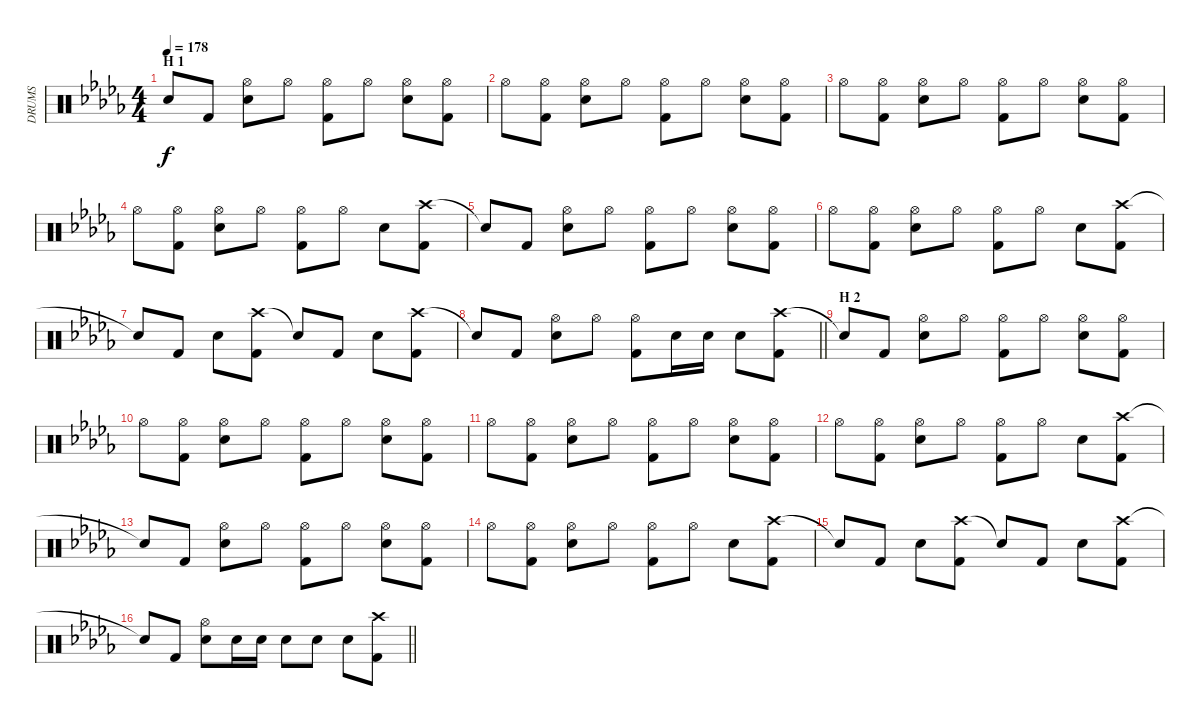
\track ("DRUMS" "DRUMS") {instrument percussion}
\staff {score}
\articulation defaults
\ts (4 4)
\section ("" "H 1")
\tempo 178
\clef neutral
\ks db "Snare (hit)"{t}.8{dy f} "Kick (hit) 2".8
("Hi-Hat (open)" "Snare (hit) 2").8 "Hi-Hat (open)".8 ("Hi-Hat (open)" "Kick (hit) 2").8 "Hi-Hat (open)".8 ("Hi-Hat (open)" "Snare (hit) 2").8 ("Hi-Hat (open)" "Kick (hit) 2").8 |
"Hi-Hat (open)".8 ("Hi-Hat (open)" "Kick (hit) 2").8 ("Hi-Hat (open)" "Snare (hit) 2").8 "Hi-Hat (open)".8 ("Hi-Hat (open)" "Kick (hit) 2").8 "Hi-Hat (open)".8 ("Hi-Hat (open)" "Snare (hit) 2").8 ("Hi-Hat (open)" "Kick (hit) 2").8 |
"Hi-Hat (open)".8 ("Hi-Hat (open)" "Kick (hit) 2").8 ("Hi-Hat (open)" "Snare (hit) 2").8 "Hi-Hat (open)".8 ("Hi-Hat (open)" "Kick (hit) 2").8 "Hi-Hat (open)".8 ("Hi-Hat (open)" "Snare (hit) 2").8 ("Hi-Hat (open)" "Kick (hit) 2").8 |
"Hi-Hat (open)".8 ("Hi-Hat (open)" "Kick (hit) 2").8 ("Hi-Hat (open)" "Snare (hit) 2").8 "Hi-Hat (open)".8 ("Hi-Hat (open)" "Kick (hit) 2").8 "Hi-Hat (open)".8 "Snare (hit) 2".8 ("Crash high (hit)" "Kick (hit) 2").8 |
"Snare (hit)"{t}.8 "Kick (hit) 2".8 ("Hi-Hat (open)" "Snare (hit) 2").8 "Hi-Hat (open)".8 ("Hi-Hat (open)" "Kick (hit) 2").8 "Hi-Hat (open)".8 ("Hi-Hat (open)" "Snare (hit) 2").8 ("Hi-Hat (open)" "Kick (hit) 2").8 |
"Hi-Hat (open)".8 ("Hi-Hat (open)" "Kick (hit) 2").8 ("Hi-Hat (open)" "Snare (hit) 2").8 "Hi-Hat (open)".8 ("Hi-Hat (open)" "Kick (hit) 2").8 "Hi-Hat (open)".8 "Snare (hit) 2".8 ("Crash high (hit)" "Kick (hit) 2").8 |
"Snare (hit)"{t}.8 "Kick (hit) 2".8 "Snare (hit) 2".8 ("Crash high (hit)" "Kick (hit) 2").8 "Snare (hit)"{t}.8 "Kick (hit) 2".8 "Snare (hit) 2".8 ("Crash high (hit)" "Kick (hit) 2").8 |
\barLineRight lightlight "Snare (hit)"{t}.8 "Kick (hit) 2".8
("Hi-Hat (open)" "Snare (hit) 2").8 "Hi-Hat (open)".8 ("Hi-Hat (open)" "Kick (hit) 2").8 "Snare (hit) 2".16 "Snare (hit) 2".16 "Snare (hit) 2".8 ("Crash high (hit)" "Kick (hit) 2").8 |
\section ("" "H 2")
"Snare (hit)"{t}.8 "Kick (hit) 2".8 ("Hi-Hat (open)" "Snare (hit) 2").8 "Hi-Hat (open)".8 ("Hi-Hat (open)" "Kick (hit) 2").8 "Hi-Hat (open)".8 ("Hi-Hat (open)" "Snare (hit) 2").8 ("Hi-Hat (open)" "Kick (hit) 2").8 |
"Hi-Hat (open)".8 ("Hi-Hat (open)" "Kick (hit) 2").8 ("Hi-Hat (open)" "Snare (hit) 2").8 "Hi-Hat (open)".8 ("Hi-Hat (open)" "Kick (hit) 2").8 "Hi-Hat (open)".8 ("Hi-Hat (open)" "Snare (hit) 2").8 ("Hi-Hat (open)" "Kick (hit) 2").8 |
"Hi-Hat (open)".8 ("Hi-Hat (open)" "Kick (hit) 2").8 ("Hi-Hat (open)" "Snare (hit) 2").8 "Hi-Hat (open)".8 ("Hi-Hat (open)" "Kick (hit) 2").8 "Hi-Hat (open)".8 ("Hi-Hat (open)" "Snare (hit) 2").8 ("Hi-Hat (open)" "Kick (hit) 2").8 |
"Hi-Hat (open)".8 ("Hi-Hat (open)" "Kick (hit) 2").8 ("Hi-Hat (open)" "Snare (hit) 2").8 "Hi-Hat (open)".8 ("Hi-Hat (open)" "Kick (hit) 2").8 "Hi-Hat (open)".8 "Snare (hit) 2".8 ("Crash high (hit)" "Kick (hit) 2").8 |
"Snare (hit)"{t}.8 "Kick (hit) 2".8 ("Hi-Hat (open)" "Snare (hit) 2").8 "Hi-Hat (open)".8 ("Hi-Hat (open)" "Kick (hit) 2").8 "Hi-Hat (open)".8 ("Hi-Hat (open)" "Snare (hit) 2").8 ("Hi-Hat (open)" "Kick (hit) 2").8 |
"Hi-Hat (open)".8 ("Hi-Hat (open)" "Kick (hit) 2").8 ("Hi-Hat (open)" "Snare (hit) 2").8 "Hi-Hat (open)".8 ("Hi-Hat (open)" "Kick (hit) 2").8 "Hi-Hat (open)".8 "Snare (hit) 2".8 ("Crash high (hit)" "Kick (hit) 2").8 |
"Snare (hit)"{t}.8 "Kick (hit) 2".8 "Snare (hit) 2".8 ("Crash high (hit)" "Kick (hit) 2").8 "Snare (hit)"{t}.8 "Kick (hit) 2".8 "Snare (hit) 2".8 ("Crash high (hit)" "Kick (hit) 2").8 |
\barLineRight lightlight "Snare (hit)"{t}.8 "Kick (hit) 2".8
("Hi-Hat (open)" "Snare (hit) 2").8 "Snare (hit) 2".16 "Snare (hit) 2".16 "Snare (hit) 2".8 "Snare (hit) 2".8 "Snare (hit) 2".8 ("Crash high (hit)" "Kick (hit) 2").8
